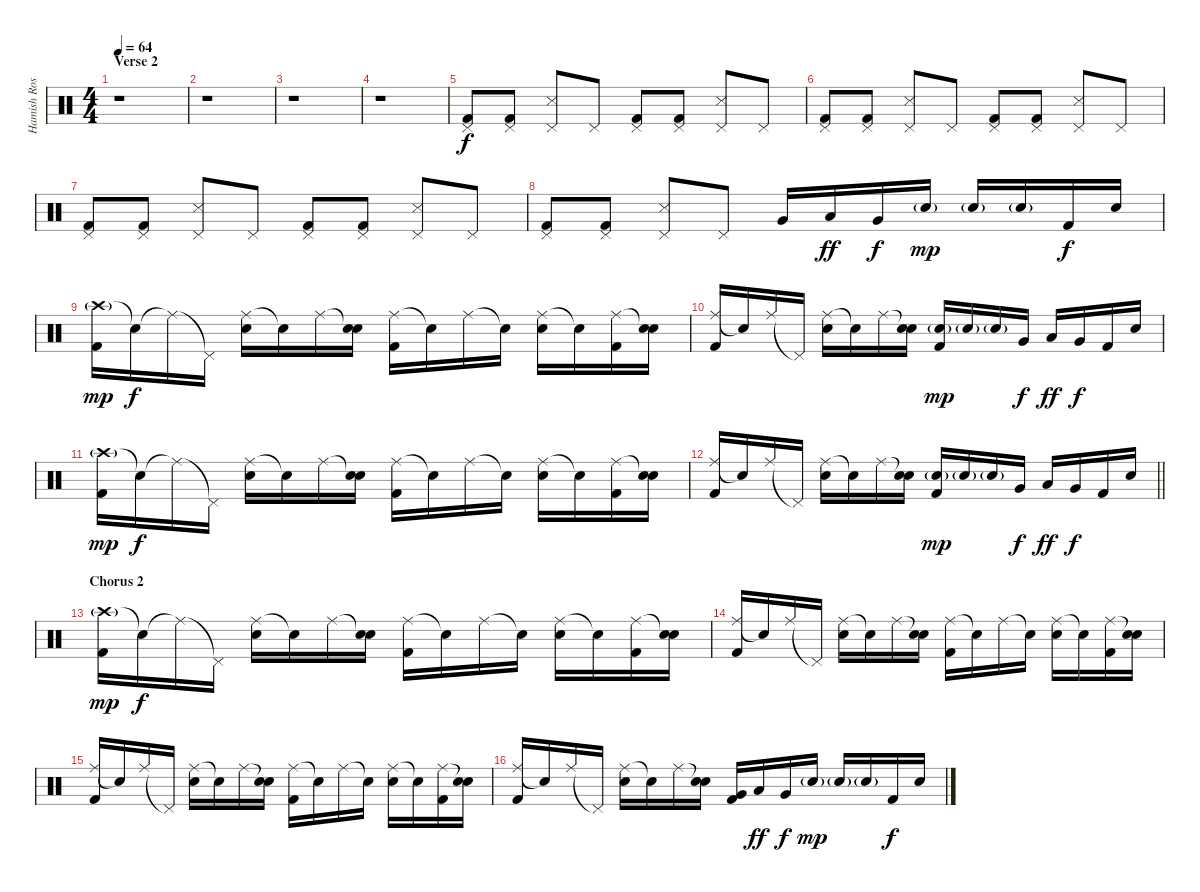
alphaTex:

\track ("Hamish Rosser" "Hamish Ros") {instrument percussion}
\staff {score}
\articulation defaults
\ts (4 4)
\section ("" "Verse 2")
\tempo 64
\clef neutral
\ks c
r.1{dy f} |
r.1 |
r.1 |
r.1 |
("Pedal Hi-Hat (hit)" "Kick (hit) 2").8 ("Pedal Hi-Hat (hit)" "Kick (hit) 2").8 ("Pedal Hi-Hat (hit)" "Snare (side stick) 3").8 "Pedal Hi-Hat (hit)".8 ("Pedal Hi-Hat (hit)" "Kick (hit) 2").8 ("Pedal Hi-Hat (hit)" "Kick (hit) 2").8 ("Pedal Hi-Hat (hit)" "Snare (side stick) 3").8 "Pedal Hi-Hat (hit)".8 |
("Pedal Hi-Hat (hit)" "Kick (hit) 2").8 ("Pedal Hi-Hat (hit)" "Kick (hit) 2").8 ("Pedal Hi-Hat (hit)" "Snare (side stick) 3").8 "Pedal Hi-Hat (hit)".8 ("Pedal Hi-Hat (hit)" "Kick (hit) 2").8 ("Pedal Hi-Hat (hit)" "Kick (hit) 2").8 ("Pedal Hi-Hat (hit)" "Snare (side stick) 3").8 "Pedal Hi-Hat (hit)".8 |
("Pedal Hi-Hat (hit)" "Kick (hit) 2").8 ("Pedal Hi-Hat (hit)" "Kick (hit) 2").8 ("Pedal Hi-Hat (hit)" "Snare (side stick) 3").8 "Pedal Hi-Hat (hit)".8 ("Pedal Hi-Hat (hit)" "Kick (hit) 2").8 ("Pedal Hi-Hat (hit)" "Kick (hit) 2").8 ("Pedal Hi-Hat (hit)" "Snare (side stick) 3").8 "Pedal Hi-Hat (hit)".8 |
("Pedal Hi-Hat (hit)" "Kick (hit) 2").8 ("Pedal Hi-Hat (hit)" "Kick (hit) 2").8 ("Pedal Hi-Hat (hit)" "Snare (side stick) 3").8 "Pedal Hi-Hat (hit)".8 "Very Low Tom (hit)".16 "Low Tom (hit)".16{dy ff} "Very Low Tom (hit)".16{dy f} "Electric Snare (hit)"{g}.16{dy mp} "Electric Snare (hit)"{g}.16 "Electric Snare (hit)"{g}.16 "Kick (hit) 2".16{dy f} "Electric Snare (hit)".16 |
("Crash high (hit)"{g} "Kick (hit) 2").16{dy mp} "Snare (hit)"{t}.16{dy f} "Ride (middle)"{t}.16 "Pedal Hi-Hat (hit)"{t}.16 ("Ride (middle)" "Electric Snare (hit)").16 "Snare (hit)"{t}.16 "Ride (middle)".16 ("Snare (hit)"{t} "Electric Snare (hit)").16 ("Ride (middle)" "Kick (hit) 2").16 "Snare (hit)"{t}.16 "Ride (middle)".16 "Snare (hit)"{t}.16 ("Ride (middle)" "Electric Snare (hit)").16 "Snare (hit)"{t}.16 ("Ride (middle)" "Kick (hit) 2").16 ("Snare (hit)"{t} "Electric Snare (hit)").16 |
("Ride (middle)" "Kick (hit) 2").16 "Snare (hit)"{t}.16 "Ride (middle)".16 "Pedal Hi-Hat (hit)"{t}.16 ("Ride (middle)" "Electric Snare (hit)").16 "Snare (hit)"{t}.16 "Ride (middle)".16 ("Snare (hit)"{t} "Electric Snare (hit)").16 ("Electric Snare (hit)"{g} "Kick (hit) 2").16{dy mp} "Electric Snare (hit)"{g}.16 "Electric Snare (hit)"{g}.16 "Very Low Tom (hit)".16{dy f} "Low Tom (hit)".16{dy ff} "Very Low Tom (hit)".16{dy f} "Kick (hit) 2".16 "Electric Snare (hit)".16 |
("Crash high (hit)"{g} "Kick (hit) 2").16{dy mp} "Snare (hit)"{t}.16{dy f} "Ride (middle)"{t}.16 "Pedal Hi-Hat (hit)"{t}.16 ("Ride (middle)" "Electric Snare (hit)").16 "Snare (hit)"{t}.16 "Ride (middle)".16 ("Snare (hit)"{t} "Electric Snare (hit)").16 ("Ride (middle)" "Kick (hit) 2").16 "Snare (hit)"{t}.16 "Ride (middle)".16 "Snare (hit)"{t}.16 ("Ride (middle)" "Electric Snare (hit)").16 "Snare (hit)"{t}.16 ("Ride (middle)" "Kick (hit) 2").16 ("Snare (hit)"{t} "Electric Snare (hit)").16 |
\barLineRight lightlight
("Ride (middle)" "Kick (hit) 2").16 "Snare (hit)"{t}.16 "Ride (middle)".16 "Pedal Hi-Hat (hit)"{t}.16 ("Ride (middle)" "Electric Snare (hit)").16 "Snare (hit)"{t}.16 "Ride (middle)".16 ("Snare (hit)"{t} "Electric Snare (hit)").16 ("Electric Snare (hit)"{g} "Kick (hit) 2").16{dy mp} "Electric Snare (hit)"{g}.16 "Electric Snare (hit)"{g}.16 "Very Low Tom (hit)".16{dy f} "Low Tom (hit)".16{dy ff} "Very Low Tom (hit)".16{dy f} "Kick (hit) 2".16 "Electric Snare (hit)".16 |
\section ("" "Chorus 2")
("Crash high (hit)"{g} "Kick (hit) 2").16{dy mp} "Snare (hit)"{t}.16{dy f} "Ride (middle)"{t}.16 "Pedal Hi-Hat (hit)"{t}.16 ("Ride (middle)" "Electric Snare (hit)").16 "Snare (hit)"{t}.16 "Ride (middle)".16 ("Snare (hit)"{t} "Electric Snare (hit)").16 ("Ride (middle)" "Kick (hit) 2").16 "Snare (hit)"{t}.16 "Ride (middle)".16 "Snare (hit)"{t}.16 ("Ride (middle)" "Electric Snare (hit)").16 "Snare (hit)"{t}.16 ("Ride (middle)" "Kick (hit) 2").16 ("Snare (hit)"{t} "Electric Snare (hit)").16 |
("Ride (middle)" "Kick (hit) 2").16 "Snare (hit)"{t}.16 "Ride (middle)".16 "Pedal Hi-Hat (hit)"{t}.16 ("Ride (middle)" "Electric Snare (hit)").16 "Snare (hit)"{t}.16 "Ride (middle)".16 ("Snare (hit)"{t} "Electric Snare (hit)").16 ("Ride (middle)" "Kick (hit) 2").16 "Snare (hit)"{t}.16 "Ride (middle)".16 "Snare (hit)"{t}.16 ("Ride (middle)" "Electric Snare (hit)").16 "Snare (hit)"{t}.16 ("Ride (middle)" "Kick (hit) 2").16 ("Snare (hit)"{t} "Electric Snare (hit)").16 |
("Ride (middle)" "Kick (hit) 2").16 "Snare (hit)"{t}.16 "Ride (middle)".16 "Pedal Hi-Hat (hit)"{t}.16 ("Ride (middle)" "Electric Snare (hit)").16 "Snare (hit)"{t}.16 "Ride (middle)".16 ("Snare (hit)"{t} "Electric Snare (hit)").16 ("Ride (middle)" "Kick (hit) 2").16 "Snare (hit)"{t}.16 "Ride (middle)".16 "Snare (hit)"{t}.16 ("Ride (middle)" "Electric Snare (hit)").16 "Snare (hit)"{t}.16 ("Ride (middle)" "Kick (hit) 2").16 ("Snare (hit)"{t} "Electric Snare (hit)").16 |
("Ride (middle)" "Kick (hit) 2").16 "Snare (hit)"{t}.16 "Ride (middle)".16 "Pedal Hi-Hat (hit)"{t}.16 ("Ride (middle)" "Electric Snare (hit)").16 "Snare (hit)"{t}.16 "Ride (middle)".16 ("Snare (hit)"{t} "Electric Snare (hit)").16 ("Very Low Tom (hit)" "Kick (hit) 2").16 "Low Tom (hit)".16{dy ff} "Very Low Tom (hit)".16{dy f} "Electric Snare (hit)"{g}.16{dy mp} "Electric Snare (hit)"{g}.16 "Electric Snare (hit)"{g}.16 "Kick (hit) 2".16{dy f} "Electric Snare (hit)".16
